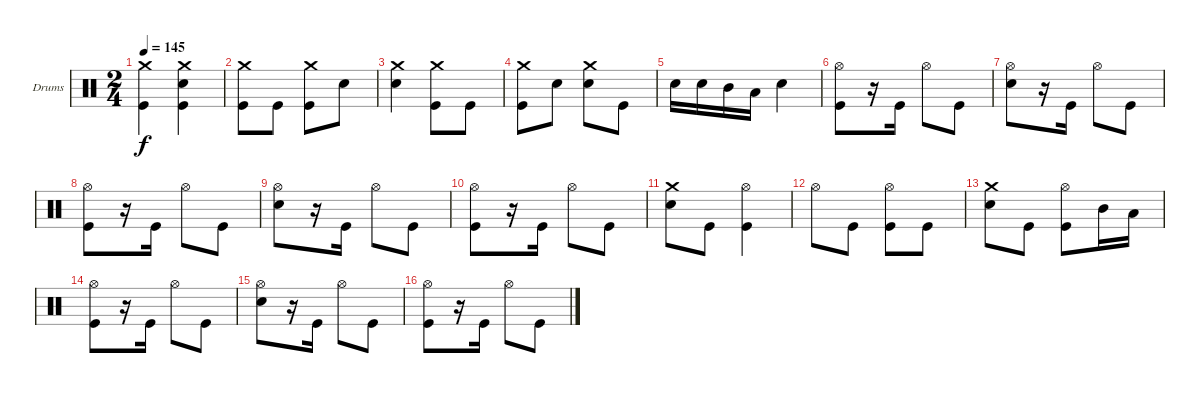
\bracketExtendMode groupsimilarinstruments
\firstSystemTrackNameOrientation horizontal
\otherSystemsTrackNameOrientation horizontal
\track ("Drumkit" "Drums") {instrument percussion}
\staff {score}
\articulation defaults
\ts (2 4)
\tempo 145
\clef neutral
\ks c
("Crash medium (hit)" "Kick (hit)").4{dy f} ("Crash medium (hit)" "Snare (hit) 2" "Kick (hit)").4 |
("Kick (hit)" "Crash medium (hit)").8 "Kick (hit)".8 ("Kick (hit)" "Crash medium (hit)").8 "Snare (hit) 2".8 |
("Snare (hit) 2" "Crash medium (hit)").4 ("Kick (hit)" "Crash medium (hit)").8 "Kick (hit)".8 |
("Kick (hit)" "Crash medium (hit)").8 "Snare (hit) 2".8 ("Snare (hit) 2" "Crash medium (hit)").8 "Kick (hit)".8 |
"Snare (hit) 2".16 "Snare (hit) 2".16 "Mid Tom (hit)".16 "Low Tom (hit)".16 "Snare (hit) 2".4 |
("Kick (hit)" "Hi-Hat (open)").8 r.16 "Kick (hit)".16 "Hi-Hat (open)".8 "Kick (hit)".8 |
("Snare (hit) 2" "Hi-Hat (open)").8 r.16 "Kick (hit)".16 "Hi-Hat (open)".8 "Kick (hit)".8 |
("Kick (hit)" "Hi-Hat (open)").8 r.16 "Kick (hit)".16 "Hi-Hat (open)".8 "Kick (hit)".8 |
("Snare (hit) 2" "Hi-Hat (open)").8 r.16 "Kick (hit)".16 "Hi-Hat (open)".8 "Kick (hit)".8 |
("Kick (hit)" "Hi-Hat (open)").8 r.16 "Kick (hit)".16 "Hi-Hat (open)".8 "Kick (hit)".8 |
("Snare (hit) 2" "Crash medium (hit)").8 "Kick (hit)".8 ("Kick (hit)" "Hi-Hat (open)").4 |
"Hi-Hat (open)".8 "Kick (hit)".8 ("Kick (hit)" "Hi-Hat (open)").8 "Kick (hit)".8 |
("Snare (hit) 2" "Crash medium (hit)").8 "Kick (hit)".8 ("Kick (hit)" "Hi-Hat (open)").8 "Mid Tom (hit)".16 "Low Tom (hit)".16 |
("Kick (hit)" "Hi-Hat (open)").8 r.16 "Kick (hit)".16 "Hi-Hat (open)".8 "Kick (hit)".8 |
("Snare (hit) 2" "Hi-Hat (open)").8 r.16 "Kick (hit)".16 "Hi-Hat (open)".8 "Kick (hit)".8 |
("Kick (hit)" "Hi-Hat (open)").8 r.16 "Kick (hit)".16 "Hi-Hat (open)".8 "Kick (hit)".8
